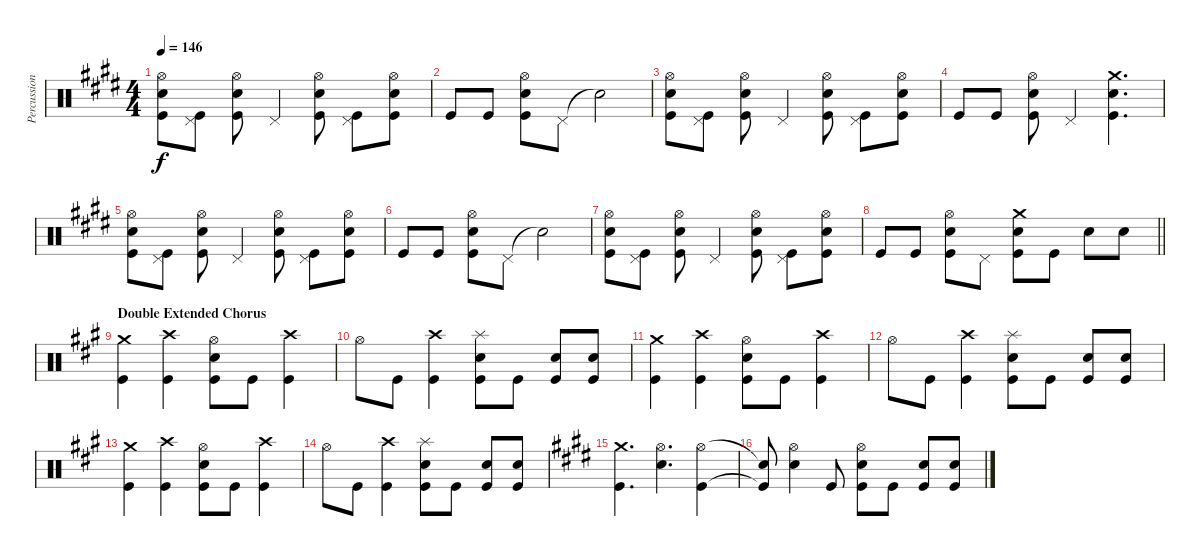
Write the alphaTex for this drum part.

\track ("Percussion" "Percussion") {instrument percussion}
\staff {score}
\articulation defaults
\ts (4 4)
\tempo 146
\clef neutral
\ks e
("Hi-Hat (open)" "Electric Snare (hit)" "Kick (hit)").8{dy f} ("Pedal Hi-Hat (hit)" "Kick (hit)").8 ("Hi-Hat (open)" "Electric Snare (hit)" "Kick (hit)").8 "Pedal Hi-Hat (hit)".4 ("Hi-Hat (open)" "Electric Snare (hit)" "Kick (hit)").8 ("Pedal Hi-Hat (hit)" "Kick (hit)").8 ("Hi-Hat (open)" "Electric Snare (hit)" "Kick (hit)").8 |
"Kick (hit)".8 "Kick (hit)".8 ("Hi-Hat (open)" "Electric Snare (hit)" "Kick (hit)").8 "Pedal Hi-Hat (hit)".8 "Snare (hit)"{t}.2 |
("Hi-Hat (open)" "Electric Snare (hit)" "Kick (hit)").8 ("Pedal Hi-Hat (hit)" "Kick (hit)").8 ("Hi-Hat (open)" "Electric Snare (hit)" "Kick (hit)").8 "Pedal Hi-Hat (hit)".4 ("Hi-Hat (open)" "Electric Snare (hit)" "Kick (hit)").8 ("Pedal Hi-Hat (hit)" "Kick (hit)").8 ("Hi-Hat (open)" "Electric Snare (hit)" "Kick (hit)").8 |
"Kick (hit)".8 "Kick (hit)".8 ("Hi-Hat (open)" "Electric Snare (hit)" "Kick (hit)").8 "Pedal Hi-Hat (hit)".4 ("Crash medium (hit)" "Electric Snare (hit)" "Kick (hit)").4{d} |
("Hi-Hat (open)" "Electric Snare (hit)" "Kick (hit)").8 ("Pedal Hi-Hat (hit)" "Kick (hit)").8 ("Hi-Hat (open)" "Electric Snare (hit)" "Kick (hit)").8 "Pedal Hi-Hat (hit)".4 ("Hi-Hat (open)" "Electric Snare (hit)" "Kick (hit)").8 ("Pedal Hi-Hat (hit)" "Kick (hit)").8 ("Hi-Hat (open)" "Electric Snare (hit)" "Kick (hit)").8 |
"Kick (hit)".8 "Kick (hit)".8 ("Hi-Hat (open)" "Electric Snare (hit)" "Kick (hit)").8 "Pedal Hi-Hat (hit)".8 "Snare (hit)"{t}.2 |
("Hi-Hat (open)" "Electric Snare (hit)" "Kick (hit)").8 ("Pedal Hi-Hat (hit)" "Kick (hit)").8 ("Hi-Hat (open)" "Electric Snare (hit)" "Kick (hit)").8 "Pedal Hi-Hat (hit)".4 ("Hi-Hat (open)" "Electric Snare (hit)" "Kick (hit)").8 ("Pedal Hi-Hat (hit)" "Kick (hit)").8 ("Hi-Hat (open)" "Electric Snare (hit)" "Kick (hit)").8 |
\barLineRight lightlight "Kick (hit)".8 "Kick (hit)".8
("Hi-Hat (open)" "Electric Snare (hit)" "Kick (hit)").8 "Pedal Hi-Hat (hit)".8 ("Crash medium (hit)" "Electric Snare (hit)" "Kick (hit)").8 "Kick (hit)".8 "Electric Snare (hit)".8 "Electric Snare (hit)".8 |
\section ("" "Double Extended Chorus")
\ks a
("Crash medium (hit)" "Kick (hit)").4 ("Crash high (hit)" "Kick (hit)").4 ("Hi-Hat (open)" "Electric Snare (hit)" "Kick (hit)").8 "Kick (hit)".8 ("Crash high (hit)" "Kick (hit)").4 |
"Hi-Hat (open)".8 "Kick (hit)".8 ("Crash high (hit)" "Kick (hit)").4 ("Splash (hit)" "Electric Snare (hit)" "Kick (hit)").8 "Kick (hit)".8 ("Electric Snare (hit)" "Kick (hit)").8 ("Electric Snare (hit)" "Kick (hit)").8 |
("Crash medium (hit)" "Kick (hit)").4 ("Crash high (hit)" "Kick (hit)").4 ("Hi-Hat (open)" "Electric Snare (hit)" "Kick (hit)").8 "Kick (hit)".8 ("Crash high (hit)" "Kick (hit)").4 |
"Hi-Hat (open)".8 "Kick (hit)".8 ("Crash high (hit)" "Kick (hit)").4 ("Splash (hit)" "Electric Snare (hit)" "Kick (hit)").8 "Kick (hit)".8 ("Electric Snare (hit)" "Kick (hit)").8 ("Electric Snare (hit)" "Kick (hit)").8 |
("Crash medium (hit)" "Kick (hit)").4 ("Crash high (hit)" "Kick (hit)").4 ("Hi-Hat (open)" "Electric Snare (hit)" "Kick (hit)").8 "Kick (hit)".8 ("Crash high (hit)" "Kick (hit)").4 |
"Hi-Hat (open)".8 "Kick (hit)".8 ("Crash high (hit)" "Kick (hit)").4 ("Splash (hit)" "Electric Snare (hit)" "Kick (hit)").8 "Kick (hit)".8 ("Electric Snare (hit)" "Kick (hit)").8 ("Electric Snare (hit)" "Kick (hit)").8 |
\ks e
("Crash medium (hit)" "Kick (hit)").4{d} ("Hi-Hat (open)" "Electric Snare (hit)").4{d} ("Hi-Hat (open)" "Kick (hit)").4 |
("Snare (hit)"{t} "Kick (hit)"{t}).8 ("Hi-Hat (open)" "Electric Snare (hit)").4 "Kick (hit)".8 ("Hi-Hat (open)" "Electric Snare (hit)" "Kick (hit)").8 "Kick (hit)".8 ("Electric Snare (hit)" "Kick (hit)").8 ("Electric Snare (hit)" "Kick (hit)").8
